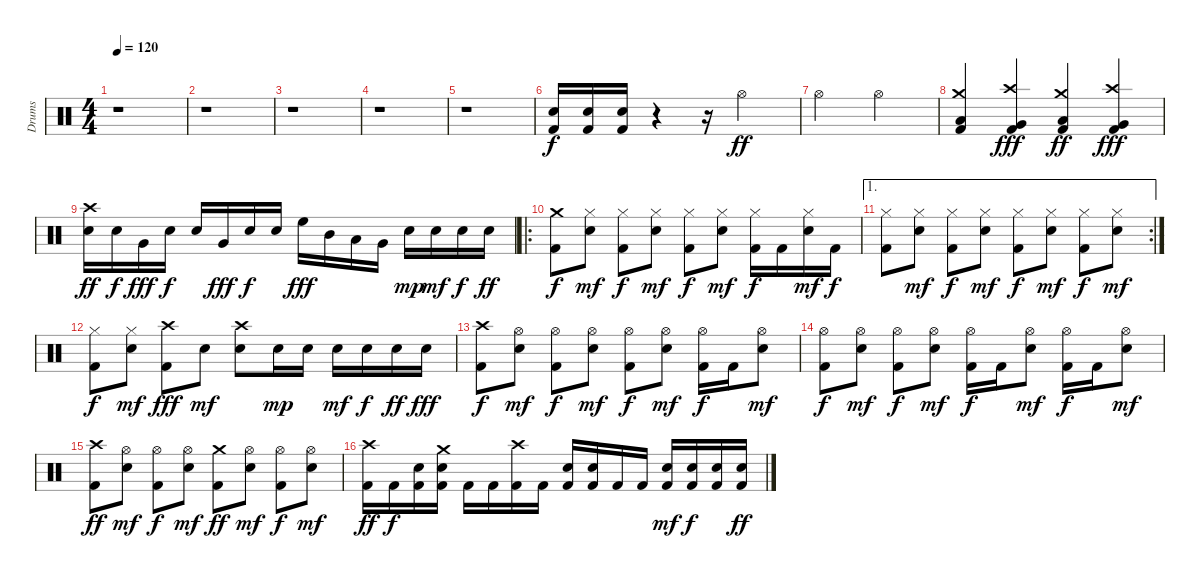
\track ("Drums" "Drums") {instrument percussion}
\staff {score}
\articulation defaults
\ts (4 4)
\tempo 120
\clef neutral
\ks c
r.1{dy f} |
r.1 |
r.1 |
r.1 |
r.1 |
("Snare (hit) 2" "Kick (hit) 2").16 ("Snare (hit) 2" "Kick (hit) 2").16 ("Snare (hit) 2" "Kick (hit) 2").16 r.4 r.16 "Hi-Hat (open)".2{dy ff} |
"Hi-Hat (open)".2 "Hi-Hat (open)".2 |
("Crash medium (hit)" "Low Floor Tom (hit)" "Kick (hit) 2").4{balance 4} ("Crash high (hit)" "Very Low Tom (hit)" "Kick (hit) 2").4{dy fff balance 12} ("Crash medium (hit)" "Low Floor Tom (hit)" "Kick (hit) 2").4{dy ff balance 4} ("Crash high (hit)" "Very Low Tom (hit)" "Kick (hit) 2").4{dy fff balance 12} |
("Crash high (hit)" "Snare (hit) 2").16{dy ff balance 8} "Snare (hit) 2".16{dy f} "Very Low Tom (hit)".16{dy fff} "Snare (hit) 2".16{dy f} "Snare (hit) 2".16 "Very Low Tom (hit)".16{dy fff} "Snare (hit) 2".16{dy f} "Snare (hit) 2".16 "High Floor Tom (hit)".16{dy fff} "Mid Tom (hit)".16 "Low Tom (hit)".16 "Very Low Tom (hit)".16 "Snare (hit) 2".16{dy mp} "Snare (hit) 2".16{dy mf} "Snare (hit) 2".16{dy f} "Snare (hit) 2".16{dy ff} |
\ro
("Crash medium (hit)" "Kick (hit) 2").8{dy f} ("Hi-Hat (closed)" "Snare (hit) 2").8{dy mf} ("Hi-Hat (closed)" "Kick (hit) 2").8{dy f} ("Hi-Hat (closed)" "Snare (hit) 2").8{dy mf} ("Hi-Hat (closed)" "Kick (hit) 2").8{dy f} ("Hi-Hat (closed)" "Snare (hit) 2").8{dy mf} ("Hi-Hat (closed)" "Kick (hit) 2").16{dy f} "Kick (hit) 2".16 ("Hi-Hat (closed)" "Snare (hit) 2").16{dy mf} "Kick (hit) 2".16{dy f} |
\ae 1
\rc 2
("Hi-Hat (closed)" "Kick (hit) 2").8 ("Hi-Hat (closed)" "Snare (hit) 2").8{dy mf} ("Hi-Hat (closed)" "Kick (hit) 2").8{dy f} ("Hi-Hat (closed)" "Snare (hit) 2").8{dy mf} ("Hi-Hat (closed)" "Kick (hit) 2").8{dy f} ("Hi-Hat (closed)" "Snare (hit) 2").8{dy mf} ("Hi-Hat (closed)" "Kick (hit) 2").8{dy f} ("Hi-Hat (closed)" "Snare (hit) 2").8{dy mf} |
("Hi-Hat (closed)" "Kick (hit) 2").8{dy f} ("Hi-Hat (closed)" "Snare (hit) 2").8{dy mf} ("Crash high (hit)" "Kick (hit) 2").8{dy fff} "Snare (hit) 2".8{dy mf} ("Crash high (hit)" "Snare (hit) 2").8 "Snare (hit) 2".16{dy mp} "Snare (hit) 2".16 "Snare (hit) 2".16{dy mf} "Snare (hit) 2".16{dy f} "Snare (hit) 2".16{dy ff} "Snare (hit) 2".16{dy fff} |
("Crash high (hit)" "Kick (hit) 2").8{dy f} ("Hi-Hat (open)" "Snare (hit) 2").8{dy mf} ("Hi-Hat (open)" "Kick (hit) 2").8{dy f} ("Hi-Hat (open)" "Snare (hit) 2").8{dy mf} ("Hi-Hat (open)" "Kick (hit) 2").8{dy f} ("Hi-Hat (open)" "Snare (hit) 2").8{dy mf} ("Hi-Hat (open)" "Kick (hit) 2").16{dy f} "Kick (hit) 2".16 ("Hi-Hat (open)" "Snare (hit) 2").8{dy mf} |
("Hi-Hat (open)" "Kick (hit) 2").8{dy f} ("Hi-Hat (open)" "Snare (hit) 2").8{dy mf} ("Hi-Hat (open)" "Kick (hit) 2").8{dy f} ("Hi-Hat (open)" "Snare (hit) 2").8{dy mf} ("Hi-Hat (open)" "Kick (hit) 2").16{dy f} "Kick (hit) 2".16 ("Hi-Hat (open)" "Snare (hit) 2").8{dy mf} ("Hi-Hat (open)" "Kick (hit) 2").16{dy f} "Kick (hit) 2".16 ("Hi-Hat (open)" "Snare (hit) 2").8{dy mf} |
("Crash high (hit)" "Kick (hit) 2").8{dy ff} ("Hi-Hat (open)" "Snare (hit) 2").8{dy mf} ("Hi-Hat (open)" "Kick (hit) 2").8{dy f} ("Hi-Hat (open)" "Snare (hit) 2").8{dy mf} ("Crash medium (hit)" "Kick (hit) 2").8{dy ff} ("Hi-Hat (open)" "Snare (hit) 2").8{dy mf} ("Hi-Hat (open)" "Kick (hit) 2").8{dy f} ("Hi-Hat (open)" "Snare (hit) 2").8{dy mf} |
("Crash high (hit)" "Kick (hit) 2").16{dy ff} "Kick (hit) 2".16{dy f} ("Snare (hit) 2" "Kick (hit) 2").16 ("Crash medium (hit)" "Snare (hit) 2" "Kick (hit) 2").16 "Kick (hit) 2".16 "Kick (hit) 2".16 ("Crash high (hit)" "Kick (hit) 2").16 "Kick (hit) 2".16 ("Snare (hit) 2" "Kick (hit) 2").16 ("Snare (hit) 2" "Kick (hit) 2").16 "Kick (hit) 2".16 "Kick (hit) 2".16 ("Snare (hit) 2" "Kick (hit) 2").16{dy mf} ("Snare (hit) 2" "Kick (hit) 2").16{dy f} ("Snare (hit) 2" "Kick (hit) 2").16 ("Snare (hit) 2" "Kick (hit) 2").16{dy ff}
